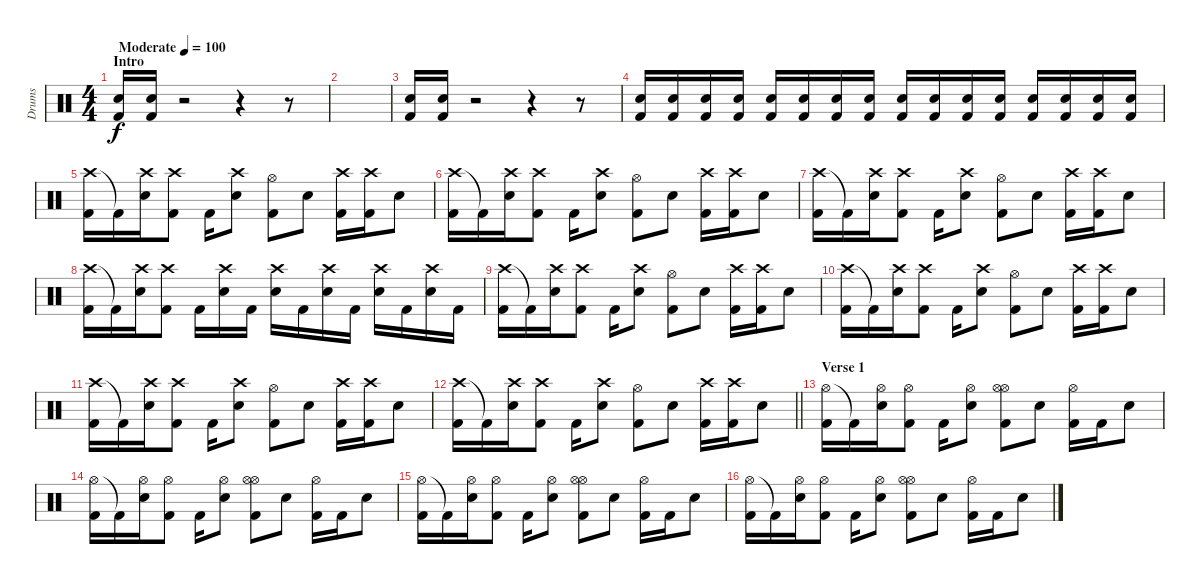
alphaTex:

\track ("Drums" "Drums") {instrument percussion}
\staff {score}
\articulation defaults
\ts (4 4)
\section ("" "Intro")
\tempo (100 "Moderate")
\clef neutral
\ks c
("Snare (hit) 2" "Kick (hit) 2").16{dy f} ("Snare (hit) 2" "Kick (hit) 2").16 r.2 r.4 r.8 |
|
("Snare (hit) 2" "Kick (hit) 2").16 ("Snare (hit) 2" "Kick (hit) 2").16 r.2 r.4 r.8 |
("Snare (hit) 2" "Kick (hit) 2").16 ("Snare (hit) 2" "Kick (hit) 2").16 ("Snare (hit) 2" "Kick (hit) 2").16 ("Snare (hit) 2" "Kick (hit) 2").16 ("Snare (hit) 2" "Kick (hit) 2").16 ("Snare (hit) 2" "Kick (hit) 2").16 ("Snare (hit) 2" "Kick (hit) 2").16 ("Snare (hit) 2" "Kick (hit) 2").16 ("Snare (hit) 2" "Kick (hit) 2").16 ("Snare (hit) 2" "Kick (hit) 2").16 ("Snare (hit) 2" "Kick (hit) 2").16 ("Snare (hit) 2" "Kick (hit) 2").16 ("Snare (hit) 2" "Kick (hit) 2").16 ("Snare (hit) 2" "Kick (hit) 2").16 ("Snare (hit) 2" "Kick (hit) 2").16 ("Snare (hit) 2" "Kick (hit) 2").16 |
("Crash high (hit)" "Kick (hit) 2").16 "Kick (hit) 2"{t}.16 ("Crash high (hit)" "Snare (hit) 2").16 ("Crash high (hit)" "Kick (hit) 2").8 "Kick (hit) 2".16 ("Crash high (hit)" "Snare (hit) 2").8 ("Hi-Hat (open)" "Kick (hit) 2").8 "Snare (hit) 2".8 ("Crash high (hit)" "Kick (hit) 2").16 ("Crash high (hit)" "Kick (hit) 2").16 "Snare (hit) 2".8 |
("Crash high (hit)" "Kick (hit) 2").16 "Kick (hit) 2"{t}.16 ("Crash high (hit)" "Snare (hit) 2").16 ("Crash high (hit)" "Kick (hit) 2").8 "Kick (hit) 2".16 ("Crash high (hit)" "Snare (hit) 2").8 ("Hi-Hat (open)" "Kick (hit) 2").8 "Snare (hit) 2".8 ("Crash high (hit)" "Kick (hit) 2").16 ("Crash high (hit)" "Kick (hit) 2").16 "Snare (hit) 2".8 |
("Crash high (hit)" "Kick (hit) 2").16 "Kick (hit) 2"{t}.16 ("Crash high (hit)" "Snare (hit) 2").16 ("Crash high (hit)" "Kick (hit) 2").8 "Kick (hit) 2".16 ("Crash high (hit)" "Snare (hit) 2").8 ("Hi-Hat (open)" "Kick (hit) 2").8 "Snare (hit) 2".8 ("Crash high (hit)" "Kick (hit) 2").16 ("Crash high (hit)" "Kick (hit) 2").16 "Snare (hit) 2".8 |
("Crash high (hit)" "Kick (hit) 2").16 "Kick (hit) 2"{t}.16 ("Crash high (hit)" "Snare (hit) 2").16 ("Crash high (hit)" "Kick (hit) 2").8 "Kick (hit) 2".16 ("Crash high (hit)" "Snare (hit) 2").16 "Kick (hit) 2".16 ("Crash high (hit)" "Snare (hit) 2").16 "Kick (hit) 2".16 ("Crash high (hit)" "Snare (hit) 2").16 "Kick (hit) 2".16 ("Crash high (hit)" "Snare (hit) 2").16 "Kick (hit) 2".16 ("Crash high (hit)" "Snare (hit) 2").16 "Kick (hit) 2".16 |
("Crash high (hit)" "Kick (hit) 2").16 "Kick (hit) 2"{t}.16 ("Crash high (hit)" "Snare (hit) 2").16 ("Crash high (hit)" "Kick (hit) 2").8 "Kick (hit) 2".16 ("Crash high (hit)" "Snare (hit) 2").8 ("Hi-Hat (open)" "Kick (hit) 2").8 "Snare (hit) 2".8 ("Crash high (hit)" "Kick (hit) 2").16 ("Crash high (hit)" "Kick (hit) 2").16 "Snare (hit) 2".8 |
("Crash high (hit)" "Kick (hit) 2").16 "Kick (hit) 2"{t}.16 ("Crash high (hit)" "Snare (hit) 2").16 ("Crash high (hit)" "Kick (hit) 2").8 "Kick (hit) 2".16 ("Crash high (hit)" "Snare (hit) 2").8 ("Hi-Hat (open)" "Kick (hit) 2").8 "Snare (hit) 2".8 ("Crash high (hit)" "Kick (hit) 2").16 ("Crash high (hit)" "Kick (hit) 2").16 "Snare (hit) 2".8 |
("Crash high (hit)" "Kick (hit) 2").16 "Kick (hit) 2"{t}.16 ("Crash high (hit)" "Snare (hit) 2").16 ("Crash high (hit)" "Kick (hit) 2").8 "Kick (hit) 2".16 ("Crash high (hit)" "Snare (hit) 2").8 ("Hi-Hat (open)" "Kick (hit) 2").8 "Snare (hit) 2".8 ("Crash high (hit)" "Kick (hit) 2").16 ("Crash high (hit)" "Kick (hit) 2").16 "Snare (hit) 2".8 |
\barLineRight lightlight
("Crash high (hit)" "Kick (hit) 2").16 "Kick (hit) 2"{t}.16 ("Crash high (hit)" "Snare (hit) 2").16 ("Crash high (hit)" "Kick (hit) 2").8 "Kick (hit) 2".16 ("Crash high (hit)" "Snare (hit) 2").8 ("Hi-Hat (open)" "Kick (hit) 2").8 "Snare (hit) 2".8 ("Crash high (hit)" "Kick (hit) 2").16 ("Crash high (hit)" "Kick (hit) 2").16 "Snare (hit) 2".8 |
\section ("" "Verse 1")
("Hi-Hat (open)" "Kick (hit) 2").16 "Kick (hit) 2"{t}.16 ("Hi-Hat (open)" "Snare (hit) 2").16 ("Hi-Hat (open)" "Kick (hit) 2").8 "Kick (hit) 2".16 ("Hi-Hat (open)" "Snare (hit) 2").8 ("Hi-Hat (open)" "Hi-Hat (open)" "Kick (hit) 2").8 "Snare (hit) 2".8 ("Hi-Hat (open)" "Kick (hit) 2").16 "Kick (hit) 2".16 "Snare (hit) 2".8 |
("Hi-Hat (open)" "Kick (hit) 2").16 "Kick (hit) 2"{t}.16 ("Hi-Hat (open)" "Snare (hit) 2").16 ("Hi-Hat (open)" "Kick (hit) 2").8 "Kick (hit) 2".16 ("Hi-Hat (open)" "Snare (hit) 2").8 ("Hi-Hat (open)" "Hi-Hat (open)" "Kick (hit) 2").8 "Snare (hit) 2".8 ("Hi-Hat (open)" "Kick (hit) 2").16 "Kick (hit) 2".16 "Snare (hit) 2".8 |
("Hi-Hat (open)" "Kick (hit) 2").16 "Kick (hit) 2"{t}.16 ("Hi-Hat (open)" "Snare (hit) 2").16 ("Hi-Hat (open)" "Kick (hit) 2").8 "Kick (hit) 2".16 ("Hi-Hat (open)" "Snare (hit) 2").8 ("Hi-Hat (open)" "Hi-Hat (open)" "Kick (hit) 2").8 "Snare (hit) 2".8 ("Hi-Hat (open)" "Kick (hit) 2").16 "Kick (hit) 2".16 "Snare (hit) 2".8 |
("Hi-Hat (open)" "Kick (hit) 2").16 "Kick (hit) 2"{t}.16 ("Hi-Hat (open)" "Snare (hit) 2").16 ("Hi-Hat (open)" "Kick (hit) 2").8 "Kick (hit) 2".16 ("Hi-Hat (open)" "Snare (hit) 2").8 ("Hi-Hat (open)" "Hi-Hat (open)" "Kick (hit) 2").8 "Snare (hit) 2".8 ("Hi-Hat (open)" "Kick (hit) 2").16 "Kick (hit) 2".16 "Snare (hit) 2".8
